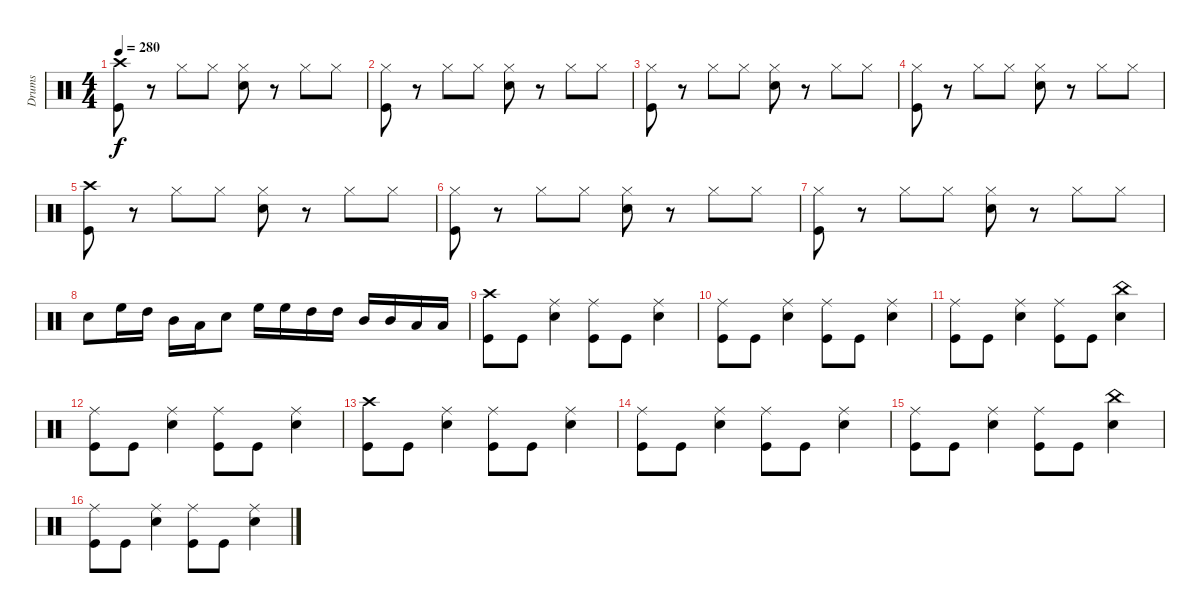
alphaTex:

\track ("Drums" "Drums") {instrument percussion}
\staff {score}
\articulation defaults
\ts (4 4)
\tempo 280
\clef neutral
\ks c
("Crash high (hit)" "Kick (hit)").8{dy f} r.8 "Hi-Hat (closed)".8 "Hi-Hat (closed)".8 ("Hi-Hat (closed)" "Electric Snare (hit)").8 r.8 "Hi-Hat (closed)".8 "Hi-Hat (closed)".8 |
("Hi-Hat (closed)" "Kick (hit)").8 r.8 "Hi-Hat (closed)".8 "Hi-Hat (closed)".8 ("Hi-Hat (closed)" "Electric Snare (hit)").8 r.8 "Hi-Hat (closed)".8 "Hi-Hat (closed)".8 |
("Hi-Hat (closed)" "Kick (hit)").8 r.8 "Hi-Hat (closed)".8 "Hi-Hat (closed)".8 ("Hi-Hat (closed)" "Electric Snare (hit)").8 r.8 "Hi-Hat (closed)".8 "Hi-Hat (closed)".8 |
("Hi-Hat (closed)" "Kick (hit)").8 r.8 "Hi-Hat (closed)".8 "Hi-Hat (closed)".8 ("Hi-Hat (closed)" "Electric Snare (hit)").8 r.8 "Hi-Hat (closed)".8 "Hi-Hat (closed)".8 |
("Crash high (hit)" "Kick (hit)").8 r.8 "Hi-Hat (closed)".8 "Hi-Hat (closed)".8 ("Hi-Hat (closed)" "Electric Snare (hit)").8 r.8 "Hi-Hat (closed)".8 "Hi-Hat (closed)".8 |
("Hi-Hat (closed)" "Kick (hit)").8 r.8 "Hi-Hat (closed)".8 "Hi-Hat (closed)".8 ("Hi-Hat (closed)" "Electric Snare (hit)").8 r.8 "Hi-Hat (closed)".8 "Hi-Hat (closed)".8 |
("Hi-Hat (closed)" "Kick (hit)").8 r.8 "Hi-Hat (closed)".8 "Hi-Hat (closed)".8 ("Hi-Hat (closed)" "Electric Snare (hit)").8 r.8 "Hi-Hat (closed)".8 "Hi-Hat (closed)".8 |
"Electric Snare (hit)".8 "High Floor Tom (hit)".16 "High Tom (hit)".16 "Mid Tom (hit)".16 "Low Tom (hit)".16 "Electric Snare (hit)".8 "High Floor Tom (hit)".16 "High Floor Tom (hit)".16 "High Tom (hit)".16 "High Tom (hit)".16 "Mid Tom (hit)".16 "Mid Tom (hit)".16 "Low Tom (hit)".16 "Low Tom (hit)".16 |
("Crash high (hit)" "Kick (hit)").8 "Kick (hit)".8 ("Ride (middle)" "Electric Snare (hit)").4 ("Ride (middle)" "Kick (hit)").8 "Kick (hit)".8 ("Ride (middle)" "Electric Snare (hit)").4 |
("Ride (middle)" "Kick (hit)").8 "Kick (hit)".8 ("Ride (middle)" "Electric Snare (hit)").4 ("Ride (middle)" "Kick (hit)").8 "Kick (hit)".8 ("Ride (middle)" "Electric Snare (hit)").4 |
("Ride (middle)" "Kick (hit)").8 "Kick (hit)".8 ("Ride (middle)" "Electric Snare (hit)").4 ("Ride (middle)" "Kick (hit)").8 "Kick (hit)".8 ("China (hit)" "Electric Snare (hit)").4 |
("Ride (middle)" "Kick (hit)").8 "Kick (hit)".8 ("Ride (middle)" "Electric Snare (hit)").4 ("Ride (middle)" "Kick (hit)").8 "Kick (hit)".8 ("Ride (middle)" "Electric Snare (hit)").4 |
("Crash high (hit)" "Kick (hit)").8 "Kick (hit)".8 ("Ride (middle)" "Electric Snare (hit)").4 ("Ride (middle)" "Kick (hit)").8 "Kick (hit)".8 ("Ride (middle)" "Electric Snare (hit)").4 |
("Ride (middle)" "Kick (hit)").8 "Kick (hit)".8 ("Ride (middle)" "Electric Snare (hit)").4 ("Ride (middle)" "Kick (hit)").8 "Kick (hit)".8 ("Ride (middle)" "Electric Snare (hit)").4 |
("Ride (middle)" "Kick (hit)").8 "Kick (hit)".8 ("Ride (middle)" "Electric Snare (hit)").4 ("Ride (middle)" "Kick (hit)").8 "Kick (hit)".8 ("China (hit)" "Electric Snare (hit)").4 |
("Ride (middle)" "Kick (hit)").8 "Kick (hit)".8 ("Ride (middle)" "Electric Snare (hit)").4 ("Ride (middle)" "Kick (hit)").8 "Kick (hit)".8 ("Ride (middle)" "Electric Snare (hit)").4
